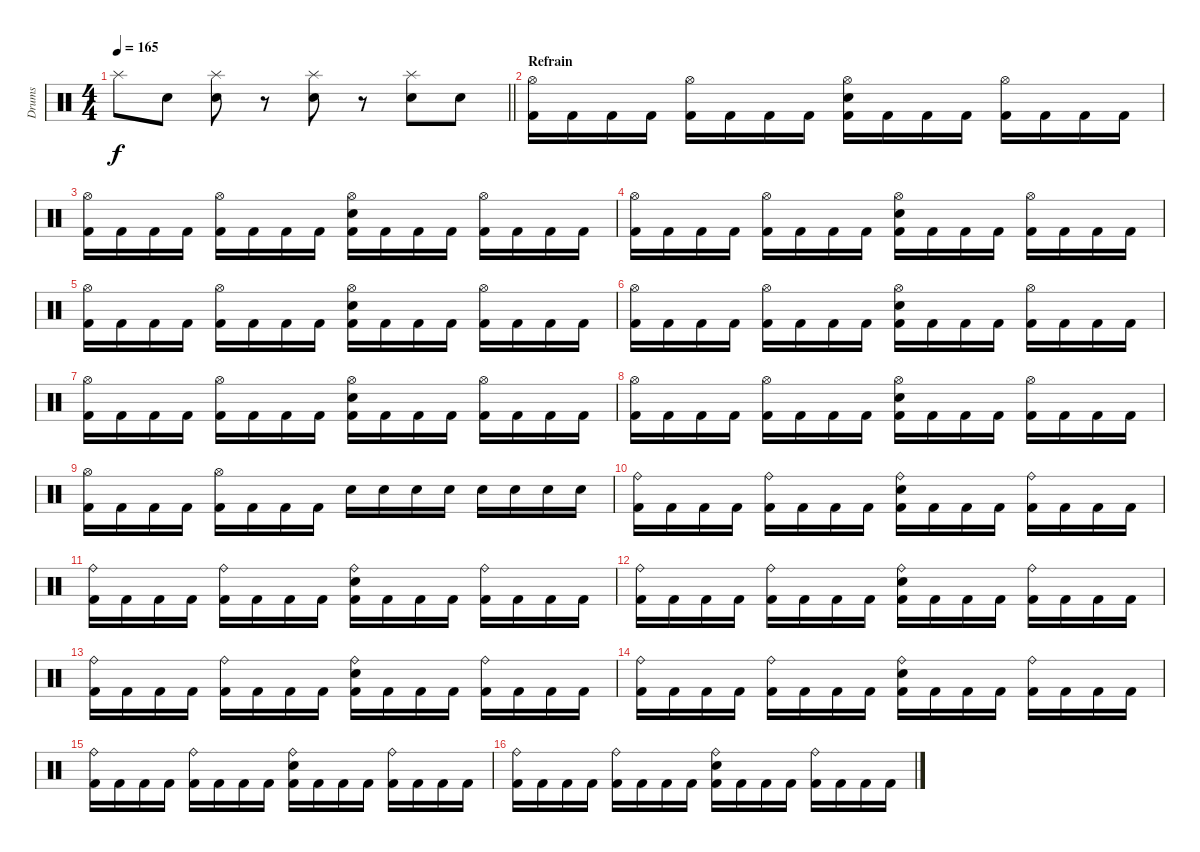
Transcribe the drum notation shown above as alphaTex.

\track ("Drums" "Drums") {instrument percussion}
\staff {score}
\articulation defaults
\ts (4 4)
\tempo 165
\clef neutral
\barLineRight lightlight
\ks c "Splash (hit)".8{dy f} "Snare (hit) 2".8
("Snare (hit) 2" "Splash (hit)").8 r.8 ("Snare (hit) 2" "Splash (hit)").8 r.8 ("Snare (hit) 2" "Splash (hit)").8 "Snare (hit) 2".8 |
\section ("" "Refrain")
("Kick (hit) 2" "Hi-Hat (open)").16 "Kick (hit) 2".16 "Kick (hit) 2".16 "Kick (hit) 2".16 ("Kick (hit) 2" "Hi-Hat (open)").16 "Kick (hit) 2".16 "Kick (hit) 2".16 "Kick (hit) 2".16 ("Kick (hit) 2" "Snare (hit) 2" "Hi-Hat (open)").16 "Kick (hit) 2".16 "Kick (hit) 2".16 "Kick (hit) 2".16 ("Kick (hit) 2" "Hi-Hat (open)").16 "Kick (hit) 2".16 "Kick (hit) 2".16 "Kick (hit) 2".16 |
("Kick (hit) 2" "Hi-Hat (open)").16 "Kick (hit) 2".16 "Kick (hit) 2".16 "Kick (hit) 2".16 ("Kick (hit) 2" "Hi-Hat (open)").16 "Kick (hit) 2".16 "Kick (hit) 2".16 "Kick (hit) 2".16 ("Kick (hit) 2" "Snare (hit) 2" "Hi-Hat (open)").16 "Kick (hit) 2".16 "Kick (hit) 2".16 "Kick (hit) 2".16 ("Kick (hit) 2" "Hi-Hat (open)").16 "Kick (hit) 2".16 "Kick (hit) 2".16 "Kick (hit) 2".16 |
("Kick (hit) 2" "Hi-Hat (open)").16 "Kick (hit) 2".16 "Kick (hit) 2".16 "Kick (hit) 2".16 ("Kick (hit) 2" "Hi-Hat (open)").16 "Kick (hit) 2".16 "Kick (hit) 2".16 "Kick (hit) 2".16 ("Kick (hit) 2" "Snare (hit) 2" "Hi-Hat (open)").16 "Kick (hit) 2".16 "Kick (hit) 2".16 "Kick (hit) 2".16 ("Kick (hit) 2" "Hi-Hat (open)").16 "Kick (hit) 2".16 "Kick (hit) 2".16 "Kick (hit) 2".16 |
("Kick (hit) 2" "Hi-Hat (open)").16 "Kick (hit) 2".16 "Kick (hit) 2".16 "Kick (hit) 2".16 ("Kick (hit) 2" "Hi-Hat (open)").16 "Kick (hit) 2".16 "Kick (hit) 2".16 "Kick (hit) 2".16 ("Kick (hit) 2" "Snare (hit) 2" "Hi-Hat (open)").16 "Kick (hit) 2".16 "Kick (hit) 2".16 "Kick (hit) 2".16 ("Kick (hit) 2" "Hi-Hat (open)").16 "Kick (hit) 2".16 "Kick (hit) 2".16 "Kick (hit) 2".16 |
("Kick (hit) 2" "Hi-Hat (open)").16 "Kick (hit) 2".16 "Kick (hit) 2".16 "Kick (hit) 2".16 ("Kick (hit) 2" "Hi-Hat (open)").16 "Kick (hit) 2".16 "Kick (hit) 2".16 "Kick (hit) 2".16 ("Kick (hit) 2" "Snare (hit) 2" "Hi-Hat (open)").16 "Kick (hit) 2".16 "Kick (hit) 2".16 "Kick (hit) 2".16 ("Kick (hit) 2" "Hi-Hat (open)").16 "Kick (hit) 2".16 "Kick (hit) 2".16 "Kick (hit) 2".16 |
("Kick (hit) 2" "Hi-Hat (open)").16 "Kick (hit) 2".16 "Kick (hit) 2".16 "Kick (hit) 2".16 ("Kick (hit) 2" "Hi-Hat (open)").16 "Kick (hit) 2".16 "Kick (hit) 2".16 "Kick (hit) 2".16 ("Kick (hit) 2" "Snare (hit) 2" "Hi-Hat (open)").16 "Kick (hit) 2".16 "Kick (hit) 2".16 "Kick (hit) 2".16 ("Kick (hit) 2" "Hi-Hat (open)").16 "Kick (hit) 2".16 "Kick (hit) 2".16 "Kick (hit) 2".16 |
("Kick (hit) 2" "Hi-Hat (open)").16 "Kick (hit) 2".16 "Kick (hit) 2".16 "Kick (hit) 2".16 ("Kick (hit) 2" "Hi-Hat (open)").16 "Kick (hit) 2".16 "Kick (hit) 2".16 "Kick (hit) 2".16 ("Kick (hit) 2" "Snare (hit) 2" "Hi-Hat (open)").16 "Kick (hit) 2".16 "Kick (hit) 2".16 "Kick (hit) 2".16 ("Kick (hit) 2" "Hi-Hat (open)").16 "Kick (hit) 2".16 "Kick (hit) 2".16 "Kick (hit) 2".16 |
("Kick (hit) 2" "Hi-Hat (open)").16 "Kick (hit) 2".16 "Kick (hit) 2".16 "Kick (hit) 2".16 ("Kick (hit) 2" "Hi-Hat (open)").16 "Kick (hit) 2".16 "Kick (hit) 2".16 "Kick (hit) 2".16 "Snare (hit) 2".16 "Snare (hit) 2".16 "Snare (hit) 2".16 "Snare (hit) 2".16 "Snare (hit) 2".16 "Snare (hit) 2".16 "Snare (hit) 2".16 "Snare (hit) 2".16 |
("Kick (hit) 2" "Ride (bell)").16 "Kick (hit) 2".16 "Kick (hit) 2".16 "Kick (hit) 2".16 ("Kick (hit) 2" "Ride (bell)").16 "Kick (hit) 2".16 "Kick (hit) 2".16 "Kick (hit) 2".16 ("Kick (hit) 2" "Snare (hit) 2" "Ride (bell)").16 "Kick (hit) 2".16 "Kick (hit) 2".16 "Kick (hit) 2".16 ("Kick (hit) 2" "Ride (bell)").16 "Kick (hit) 2".16 "Kick (hit) 2".16 "Kick (hit) 2".16 |
("Kick (hit) 2" "Ride (bell)").16 "Kick (hit) 2".16 "Kick (hit) 2".16 "Kick (hit) 2".16 ("Kick (hit) 2" "Ride (bell)").16 "Kick (hit) 2".16 "Kick (hit) 2".16 "Kick (hit) 2".16 ("Kick (hit) 2" "Snare (hit) 2" "Ride (bell)").16 "Kick (hit) 2".16 "Kick (hit) 2".16 "Kick (hit) 2".16 ("Kick (hit) 2" "Ride (bell)").16 "Kick (hit) 2".16 "Kick (hit) 2".16 "Kick (hit) 2".16 |
("Kick (hit) 2" "Ride (bell)").16 "Kick (hit) 2".16 "Kick (hit) 2".16 "Kick (hit) 2".16 ("Kick (hit) 2" "Ride (bell)").16 "Kick (hit) 2".16 "Kick (hit) 2".16 "Kick (hit) 2".16 ("Kick (hit) 2" "Snare (hit) 2" "Ride (bell)").16 "Kick (hit) 2".16 "Kick (hit) 2".16 "Kick (hit) 2".16 ("Kick (hit) 2" "Ride (bell)").16 "Kick (hit) 2".16 "Kick (hit) 2".16 "Kick (hit) 2".16 |
("Kick (hit) 2" "Ride (bell)").16 "Kick (hit) 2".16 "Kick (hit) 2".16 "Kick (hit) 2".16 ("Kick (hit) 2" "Ride (bell)").16 "Kick (hit) 2".16 "Kick (hit) 2".16 "Kick (hit) 2".16 ("Kick (hit) 2" "Snare (hit) 2" "Ride (bell)").16 "Kick (hit) 2".16 "Kick (hit) 2".16 "Kick (hit) 2".16 ("Kick (hit) 2" "Ride (bell)").16 "Kick (hit) 2".16 "Kick (hit) 2".16 "Kick (hit) 2".16 |
("Kick (hit) 2" "Ride (bell)").16 "Kick (hit) 2".16 "Kick (hit) 2".16 "Kick (hit) 2".16 ("Kick (hit) 2" "Ride (bell)").16 "Kick (hit) 2".16 "Kick (hit) 2".16 "Kick (hit) 2".16 ("Kick (hit) 2" "Snare (hit) 2" "Ride (bell)").16 "Kick (hit) 2".16 "Kick (hit) 2".16 "Kick (hit) 2".16 ("Kick (hit) 2" "Ride (bell)").16 "Kick (hit) 2".16 "Kick (hit) 2".16 "Kick (hit) 2".16 |
("Kick (hit) 2" "Ride (bell)").16 "Kick (hit) 2".16 "Kick (hit) 2".16 "Kick (hit) 2".16 ("Kick (hit) 2" "Ride (bell)").16 "Kick (hit) 2".16 "Kick (hit) 2".16 "Kick (hit) 2".16 ("Kick (hit) 2" "Snare (hit) 2" "Ride (bell)").16 "Kick (hit) 2".16 "Kick (hit) 2".16 "Kick (hit) 2".16 ("Kick (hit) 2" "Ride (bell)").16 "Kick (hit) 2".16 "Kick (hit) 2".16 "Kick (hit) 2".16 |
("Kick (hit) 2" "Ride (bell)").16 "Kick (hit) 2".16 "Kick (hit) 2".16 "Kick (hit) 2".16 ("Kick (hit) 2" "Ride (bell)").16 "Kick (hit) 2".16 "Kick (hit) 2".16 "Kick (hit) 2".16 ("Kick (hit) 2" "Snare (hit) 2" "Ride (bell)").16 "Kick (hit) 2".16 "Kick (hit) 2".16 "Kick (hit) 2".16 ("Kick (hit) 2" "Ride (bell)").16 "Kick (hit) 2".16 "Kick (hit) 2".16 "Kick (hit) 2".16
